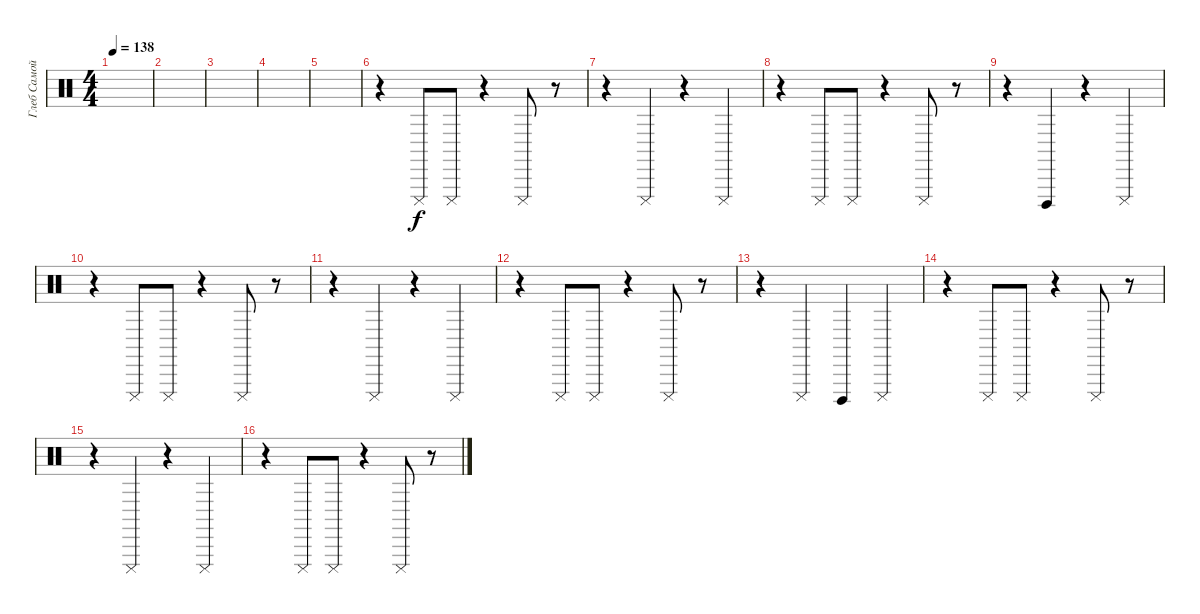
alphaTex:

\track ("Глеб Самойлов (fx)" "Глеб Самой") {instrument percussion}
\staff {score}
\articulation defaults
\ts (4 4)
\tempo 138
\clef neutral
\ks c
|
|
|
|
|
r.4 "Cuica (mute)".8 "Cuica (mute)".8 r.4 "Cuica (mute)".8 r.8 |
r.4 "Cuica (mute)".4 r.4 "Cuica (mute)".4 |
r.4 "Cuica (mute)".8 "Cuica (mute)".8 r.4 "Cuica (mute)".8 r.8 |
r.4 "Cuica (open)".4 r.4 "Cuica (mute)".4 |
r.4 "Cuica (mute)".8 "Cuica (mute)".8 r.4 "Cuica (mute)".8 r.8 |
r.4 "Cuica (mute)".4 r.4 "Cuica (mute)".4 |
r.4 "Cuica (mute)".8 "Cuica (mute)".8 r.4 "Cuica (mute)".8 r.8 |
r.4 "Cuica (mute)".4 "Cuica (open)".4 "Cuica (mute)".4 |
r.4 "Cuica (mute)".8 "Cuica (mute)".8 r.4 "Cuica (mute)".8 r.8 |
r.4 "Cuica (mute)".4 r.4 "Cuica (mute)".4 |
r.4 "Cuica (mute)".8 "Cuica (mute)".8 r.4 "Cuica (mute)".8 r.8
